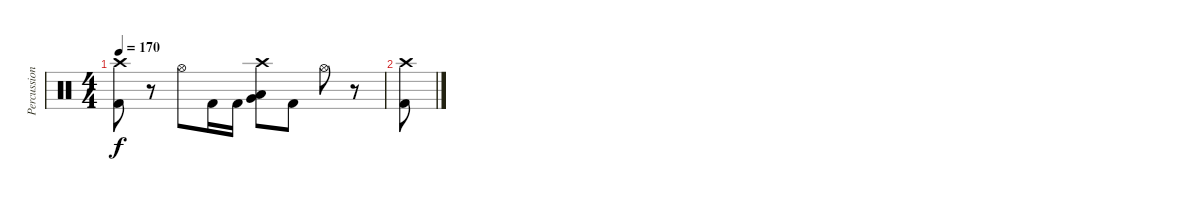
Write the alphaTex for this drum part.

\track ("Percussion" "Percussion") {instrument percussion}
\staff {score}
\articulation defaults
\ts (4 4)
\tempo 170
\clef neutral
\ks c
("Crash high (hit)" "Kick (hit) 2").8{dy f} r.8 "Hi-Hat (open)".8 "Kick (hit) 2".16 "Kick (hit) 2".16 ("Crash high (hit)" "Very Low Tom (hit)" "Low Floor Tom (hit)").8 "Kick (hit) 2".8 "Hi-Hat (open)".8 r.8 |
("Crash high (hit)" "Kick (hit) 2").8
